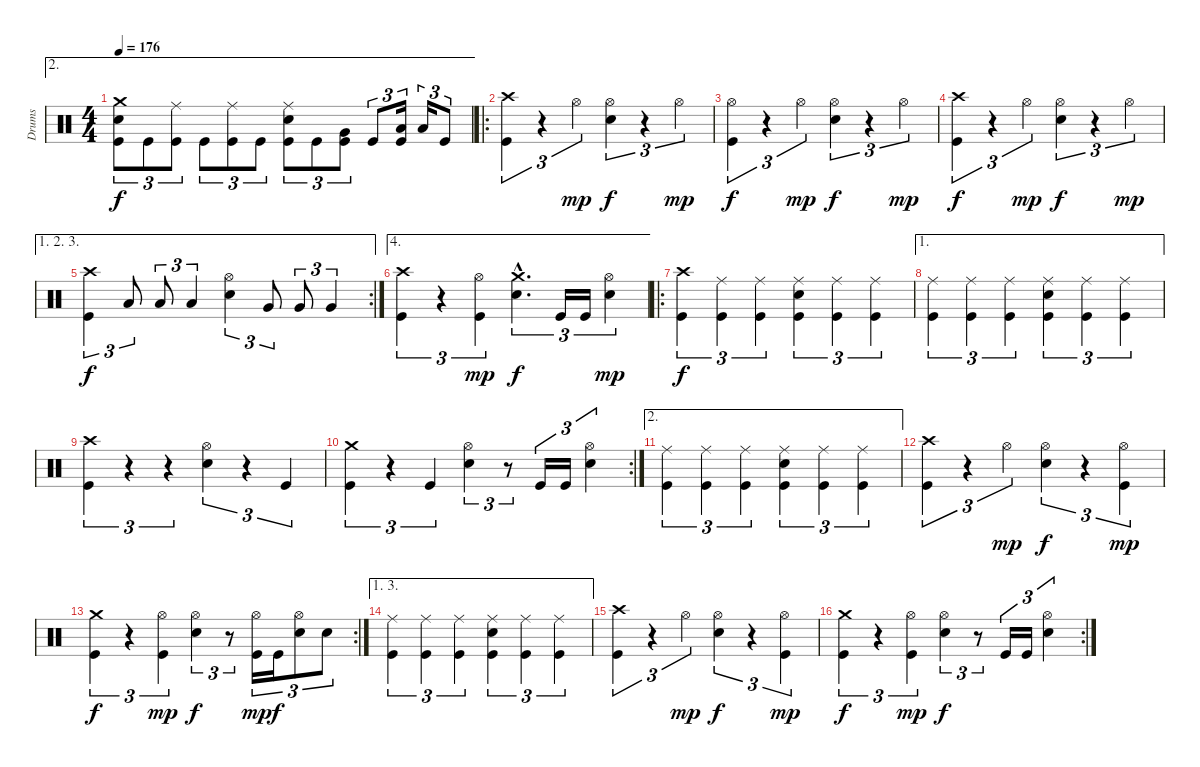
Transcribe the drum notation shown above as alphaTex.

\track ("Drums" "Drums") {instrument percussion}
\staff {score}
\articulation defaults
\ae 2
\ts (4 4)
\tempo 176
\clef neutral
\ks c
("Crash medium (hit)" "Electric Snare (hit)" "Kick (hit)").8{tu (3 2) dy f} "Kick (hit)".8{tu (3 2)} ("Ride (middle)" "Kick (hit)").8{tu (3 2)} "Kick (hit)".8{tu (3 2)} ("Ride (middle)" "Kick (hit)").8{tu (3 2)} "Kick (hit)".8{tu (3 2)} ("Ride (middle)" "Electric Snare (hit)" "Kick (hit)").8{tu (3 2)} "Kick (hit)".8{tu (3 2)} ("Very Low Tom (hit)" "Kick (hit)").8{tu (3 2)} "Kick (hit)".8{tu (3 2)} ("Low Floor Tom (hit)" "Kick (hit)").16{tu (3 2)} "Low Floor Tom (hit)".16{tu (3 2)} "Kick (hit)".8{tu (3 2)} |
\ro
("Crash high (hit)" "Kick (hit)").4{tu (3 2)} r.4{tu (3 2)} "Hi-Hat (open)".4{tu (3 2) dy mp} ("Hi-Hat (open)" "Electric Snare (hit)").4{tu (3 2) dy f} r.4{tu (3 2)} "Hi-Hat (open)".4{tu (3 2) dy mp} |
("Hi-Hat (open)" "Kick (hit)").4{tu (3 2) dy f} r.4{tu (3 2)} "Hi-Hat (open)".4{tu (3 2) dy mp} ("Hi-Hat (open)" "Electric Snare (hit)").4{tu (3 2) dy f} r.4{tu (3 2)} "Hi-Hat (open)".4{tu (3 2) dy mp} |
("Crash high (hit)" "Kick (hit)").4{tu (3 2) dy f} r.4{tu (3 2)} "Hi-Hat (open)".4{tu (3 2) dy mp} ("Hi-Hat (open)" "Electric Snare (hit)").4{tu (3 2) dy f} r.4{tu (3 2)} "Hi-Hat (open)".4{tu (3 2) dy mp} |
\ae (1 2 3)
\rc 2
("Crash high (hit)" "Kick (hit)").4{tu (3 2) dy f} "Low Tom (hit)".8{tu (3 2)} "Low Tom (hit)".8{tu (3 2)} "Low Tom (hit)".4{tu (3 2)} ("Hi-Hat (open)" "Electric Snare (hit)").4{tu (3 2)} "Very Low Tom (hit)".8{tu (3 2)} "Very Low Tom (hit)".8{tu (3 2)} "Very Low Tom (hit)".4{tu (3 2)} |
\ae 4
("Crash high (hit)" "Kick (hit)").4{tu (3 2)} r.4{tu (3 2)} ("Hi-Hat (open)" "Kick (hit)").4{tu (3 2) dy mp} ("Crash medium (hit)"{hac} "Electric Snare (hit)"{hac}).4{d tu (3 2) dy f} "Kick (hit)".16{tu (3 2)} "Kick (hit)".16{tu (3 2)} ("Hi-Hat (open)" "Electric Snare (hit)").4{tu (3 2) dy mp} |
\ro
("Crash high (hit)" "Kick (hit)").4{tu (3 2) dy f} ("Ride (middle)" "Kick (hit)").4{tu (3 2)} ("Ride (middle)" "Kick (hit)").4{tu (3 2)} ("Ride (middle)" "Electric Snare (hit)" "Kick (hit)").4{tu (3 2)} ("Ride (middle)" "Kick (hit)").4{tu (3 2)} ("Ride (middle)" "Kick (hit)").4{tu (3 2)} |
\ae 1
("Ride (middle)" "Kick (hit)").4{tu (3 2)} ("Ride (middle)" "Kick (hit)").4{tu (3 2)} ("Ride (middle)" "Kick (hit)").4{tu (3 2)} ("Ride (middle)" "Electric Snare (hit)" "Kick (hit)").4{tu (3 2)} ("Ride (middle)" "Kick (hit)").4{tu (3 2)} ("Ride (middle)" "Kick (hit)").4{tu (3 2)} |
("Crash high (hit)" "Kick (hit)").4{tu (3 2)} r.4{tu (3 2)} r.4{tu (3 2)} ("Hi-Hat (open)" "Electric Snare (hit)").4{tu (3 2)} r.4{tu (3 2)} "Kick (hit)".4{tu (3 2)} |
\rc 2
("Crash medium (hit)" "Kick (hit)").4{tu (3 2)} r.4{tu (3 2)} "Kick (hit)".4{tu (3 2)} ("Hi-Hat (open)" "Electric Snare (hit)").4{tu (3 2)} r.8{tu (3 2)} "Kick (hit)".16{tu (3 2)} "Kick (hit)".16{tu (3 2)} ("Hi-Hat (open)" "Electric Snare (hit)").4{tu (3 2)} |
\ae 2
("Ride (middle)" "Kick (hit)").4{tu (3 2)} ("Ride (middle)" "Kick (hit)").4{tu (3 2)} ("Ride (middle)" "Kick (hit)").4{tu (3 2)} ("Ride (middle)" "Electric Snare (hit)" "Kick (hit)").4{tu (3 2)} ("Ride (middle)" "Kick (hit)").4{tu (3 2)} ("Ride (middle)" "Kick (hit)").4{tu (3 2)} |
("Crash high (hit)" "Kick (hit)").4{tu (3 2)} r.4{tu (3 2)} "Hi-Hat (open)".4{tu (3 2) dy mp} ("Hi-Hat (open)" "Electric Snare (hit)").4{tu (3 2) dy f} r.4{tu (3 2)} ("Hi-Hat (open)" "Kick (hit)").4{tu (3 2) dy mp} |
\rc 2
("Crash medium (hit)" "Kick (hit)").4{tu (3 2) dy f} r.4{tu (3 2)} ("Hi-Hat (open)" "Kick (hit)").4{tu (3 2) dy mp} ("Hi-Hat (open)" "Electric Snare (hit)").4{tu (3 2) dy f} r.8{tu (3 2)} ("Hi-Hat (open)" "Kick (hit)").16{tu (3 2) dy mp} "Kick (hit)".16{tu (3 2) dy f} ("Hi-Hat (open)" "Electric Snare (hit)").8{tu (3 2)} "Electric Snare (hit)".8{tu (3 2)} |
\ae (1 3)
("Ride (middle)" "Kick (hit)").4{tu (3 2)} ("Ride (middle)" "Kick (hit)").4{tu (3 2)} ("Ride (middle)" "Kick (hit)").4{tu (3 2)} ("Ride (middle)" "Electric Snare (hit)" "Kick (hit)").4{tu (3 2)} ("Ride (middle)" "Kick (hit)").4{tu (3 2)} ("Ride (middle)" "Kick (hit)").4{tu (3 2)} |
("Crash high (hit)" "Kick (hit)").4{tu (3 2)} r.4{tu (3 2)} "Hi-Hat (open)".4{tu (3 2) dy mp} ("Hi-Hat (open)" "Electric Snare (hit)").4{tu (3 2) dy f} r.4{tu (3 2)} ("Hi-Hat (open)" "Kick (hit)").4{tu (3 2) dy mp} |
\rc 2
("Crash medium (hit)" "Kick (hit)").4{tu (3 2) dy f} r.4{tu (3 2)} ("Hi-Hat (open)" "Kick (hit)").4{tu (3 2) dy mp} ("Hi-Hat (open)" "Electric Snare (hit)").4{tu (3 2) dy f} r.8{tu (3 2)} "Kick (hit)".16{tu (3 2)} "Kick (hit)".16{tu (3 2)} ("Hi-Hat (open)" "Electric Snare (hit)").4{tu (3 2)}
